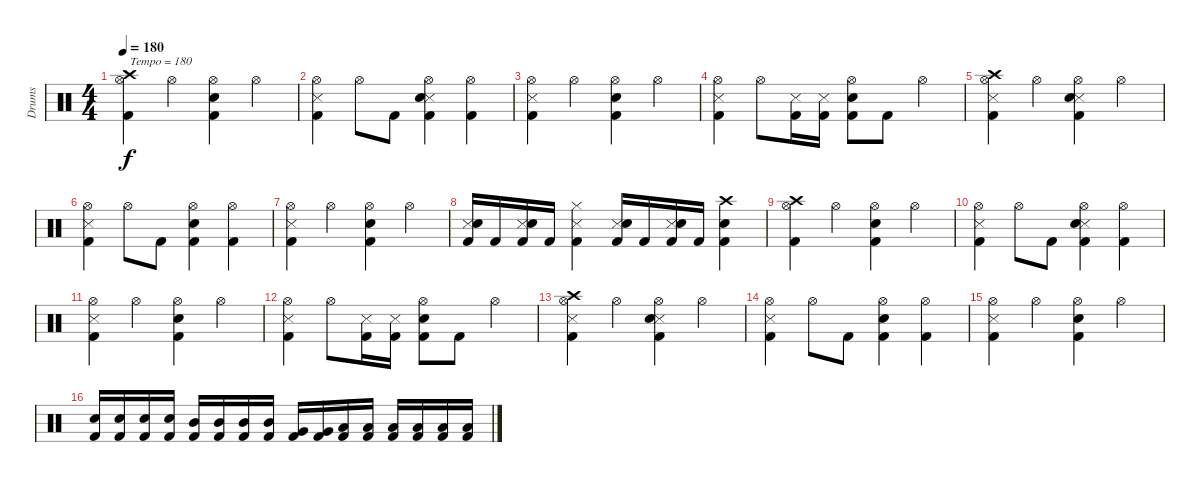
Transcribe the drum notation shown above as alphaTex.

\track ("Drums" "Drums") {instrument percussion}
\staff {score}
\articulation defaults
\ts (4 4)
\tempo 180
\clef neutral
\ks c
("Crash high (hit)" "Hi-Hat (open)" "Kick (hit) 2").4{txt "Tempo = 180" dy f} "Hi-Hat (open)".4 ("Hi-Hat (open)" "Electric Snare (hit)" "Kick (hit) 2").4 "Hi-Hat (open)".4 |
("Snare (side stick) 3" "Hi-Hat (open)" "Kick (hit) 2").4 "Hi-Hat (open)".8 "Kick (hit) 2".8 ("Snare (side stick) 3" "Hi-Hat (open)" "Electric Snare (hit)" "Kick (hit) 2").4 ("Hi-Hat (open)" "Kick (hit) 2").4 |
("Snare (side stick) 3" "Hi-Hat (open)" "Kick (hit) 2").4 "Hi-Hat (open)".4 ("Hi-Hat (open)" "Electric Snare (hit)" "Kick (hit) 2").4 "Hi-Hat (open)".4 |
("Snare (side stick) 3" "Hi-Hat (open)" "Kick (hit) 2").4 "Hi-Hat (open)".8 ("Snare (side stick) 3" "Kick (hit) 2").16 ("Snare (side stick) 3" "Kick (hit) 2").16 ("Hi-Hat (open)" "Electric Snare (hit)" "Kick (hit) 2").8 "Kick (hit) 2".8 "Hi-Hat (open)".4 |
("Crash high (hit)" "Snare (side stick) 3" "Hi-Hat (open)" "Kick (hit) 2").4 "Hi-Hat (open)".4 ("Snare (side stick) 3" "Hi-Hat (open)" "Electric Snare (hit)" "Kick (hit) 2").4 "Hi-Hat (open)".4 |
("Snare (side stick) 3" "Hi-Hat (open)" "Kick (hit) 2").4 "Hi-Hat (open)".8 "Kick (hit) 2".8 ("Hi-Hat (open)" "Electric Snare (hit)" "Kick (hit) 2").4 ("Hi-Hat (open)" "Kick (hit) 2").4 |
("Snare (side stick) 3" "Hi-Hat (open)" "Kick (hit) 2").4 "Hi-Hat (open)".4 ("Hi-Hat (open)" "Electric Snare (hit)" "Kick (hit) 2").4 "Hi-Hat (open)".4 |
("Snare (side stick) 3" "Electric Snare (hit)" "Kick (hit) 2").16 "Kick (hit) 2".16 ("Snare (side stick) 3" "Electric Snare (hit)" "Kick (hit) 2").16 "Kick (hit) 2".16 ("Snare (side stick) 3" "Hi-Hat (closed)" "Kick (hit) 2").4 ("Snare (side stick) 3" "Electric Snare (hit)" "Kick (hit) 2").16 "Kick (hit) 2".16 ("Snare (side stick) 3" "Electric Snare (hit)" "Kick (hit) 2").16 "Kick (hit) 2".16 ("Crash high (hit)" "Electric Snare (hit)" "Kick (hit) 2").4 |
("Crash high (hit)" "Hi-Hat (open)" "Kick (hit) 2").4 "Hi-Hat (open)".4 ("Hi-Hat (open)" "Electric Snare (hit)" "Kick (hit) 2").4 "Hi-Hat (open)".4 |
("Snare (side stick) 3" "Hi-Hat (open)" "Kick (hit) 2").4 "Hi-Hat (open)".8 "Kick (hit) 2".8 ("Snare (side stick) 3" "Hi-Hat (open)" "Electric Snare (hit)" "Kick (hit) 2").4 ("Hi-Hat (open)" "Kick (hit) 2").4 |
("Snare (side stick) 3" "Hi-Hat (open)" "Kick (hit) 2").4 "Hi-Hat (open)".4 ("Hi-Hat (open)" "Electric Snare (hit)" "Kick (hit) 2").4 "Hi-Hat (open)".4 |
("Snare (side stick) 3" "Hi-Hat (open)" "Kick (hit) 2").4 "Hi-Hat (open)".8 ("Snare (side stick) 3" "Kick (hit) 2").16 ("Snare (side stick) 3" "Kick (hit) 2").16 ("Hi-Hat (open)" "Electric Snare (hit)" "Kick (hit) 2").8 "Kick (hit) 2".8 "Hi-Hat (open)".4 |
("Crash high (hit)" "Snare (side stick) 3" "Hi-Hat (open)" "Kick (hit) 2").4 "Hi-Hat (open)".4 ("Snare (side stick) 3" "Hi-Hat (open)" "Electric Snare (hit)" "Kick (hit) 2").4 "Hi-Hat (open)".4 |
("Snare (side stick) 3" "Hi-Hat (open)" "Kick (hit) 2").4 "Hi-Hat (open)".8 "Kick (hit) 2".8 ("Hi-Hat (open)" "Electric Snare (hit)" "Kick (hit) 2").4 ("Hi-Hat (open)" "Kick (hit) 2").4 |
("Snare (side stick) 3" "Hi-Hat (open)" "Kick (hit) 2").4 "Hi-Hat (open)".4 ("Hi-Hat (open)" "Electric Snare (hit)" "Kick (hit) 2").4 "Hi-Hat (open)".4 |
("Electric Snare (hit)" "Kick (hit) 2").16 ("Electric Snare (hit)" "Kick (hit) 2").16 ("Electric Snare (hit)" "Kick (hit) 2").16 ("Electric Snare (hit)" "Kick (hit) 2").16 ("Mid Tom (hit)" "Kick (hit) 2").16 ("Mid Tom (hit)" "Kick (hit) 2").16 ("Mid Tom (hit)" "Kick (hit) 2").16 ("Mid Tom (hit)" "Kick (hit) 2").16 ("Very Low Tom (hit)" "Kick (hit) 2").16 ("Very Low Tom (hit)" "Kick (hit) 2").16 ("Low Tom (hit)" "Kick (hit) 2").16 ("Low Tom (hit)" "Kick (hit) 2").16 ("Low Floor Tom (hit)" "Kick (hit) 2").16 ("Low Floor Tom (hit)" "Kick (hit) 2").16 ("Low Floor Tom (hit)" "Kick (hit) 2").16 ("Low Floor Tom (hit)" "Kick (hit) 2").16
